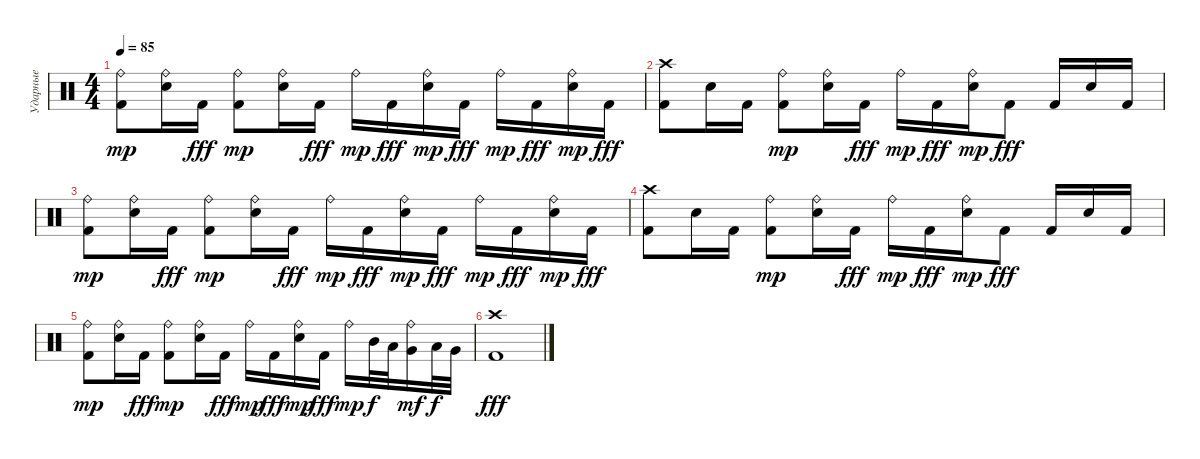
\track ("Ударные" "Ударные") {instrument percussion}
\staff {score}
\articulation defaults
\ts (4 4)
\tempo 85
\clef neutral
\ks c
("Kick (hit) 2" "Ride (bell)").8{dy mp} ("Electric Snare (hit)" "Ride (bell)").16 "Kick (hit) 2".16{dy fff} ("Kick (hit) 2" "Ride (bell)").8{dy mp} ("Electric Snare (hit)" "Ride (bell)").16 "Kick (hit) 2".16{dy fff} "Ride (bell)".16{dy mp} "Kick (hit) 2".16{dy fff} ("Electric Snare (hit)" "Ride (bell)").16{dy mp} "Kick (hit) 2".16{dy fff} "Ride (bell)".16{dy mp} "Kick (hit) 2".16{dy fff} ("Electric Snare (hit)" "Ride (bell)").16{dy mp} "Kick (hit) 2".16{dy fff} |
("Kick (hit) 2" "Crash high (hit)").8 "Electric Snare (hit)".16 "Kick (hit) 2".16 ("Kick (hit) 2" "Ride (bell)").8{dy mp} ("Electric Snare (hit)" "Ride (bell)").16 "Kick (hit) 2".16{dy fff} "Ride (bell)".16{dy mp} "Kick (hit) 2".16{dy fff} ("Electric Snare (hit)" "Ride (bell)").16{dy mp} "Kick (hit) 2".8{dy fff} "Kick (hit) 2".16 "Electric Snare (hit)".16 "Kick (hit) 2".16 |
("Kick (hit) 2" "Ride (bell)").8{dy mp} ("Electric Snare (hit)" "Ride (bell)").16 "Kick (hit) 2".16{dy fff} ("Kick (hit) 2" "Ride (bell)").8{dy mp} ("Electric Snare (hit)" "Ride (bell)").16 "Kick (hit) 2".16{dy fff} "Ride (bell)".16{dy mp} "Kick (hit) 2".16{dy fff} ("Electric Snare (hit)" "Ride (bell)").16{dy mp} "Kick (hit) 2".16{dy fff} "Ride (bell)".16{dy mp} "Kick (hit) 2".16{dy fff} ("Electric Snare (hit)" "Ride (bell)").16{dy mp} "Kick (hit) 2".16{dy fff} |
("Kick (hit) 2" "Crash high (hit)").8 "Electric Snare (hit)".16 "Kick (hit) 2".16 ("Kick (hit) 2" "Ride (bell)").8{dy mp} ("Electric Snare (hit)" "Ride (bell)").16 "Kick (hit) 2".16{dy fff} "Ride (bell)".16{dy mp} "Kick (hit) 2".16{dy fff} ("Electric Snare (hit)" "Ride (bell)").16{dy mp} "Kick (hit) 2".8{dy fff} "Kick (hit) 2".16 "Electric Snare (hit)".16 "Kick (hit) 2".16 |
("Kick (hit) 2" "Ride (bell)").8{dy mp} ("Electric Snare (hit)" "Ride (bell)").16 "Kick (hit) 2".16{dy fff} ("Kick (hit) 2" "Ride (bell)").8{dy mp} ("Electric Snare (hit)" "Ride (bell)").16 "Kick (hit) 2".16{dy fff} "Ride (bell)".16{dy mp} "Kick (hit) 2".16{dy fff} ("Electric Snare (hit)" "Ride (bell)").16{dy mp} "Kick (hit) 2".16{dy fff} "Ride (bell)".16{dy mp} "Mid Tom (hit)".32{dy f} "Low Tom (hit)".32 ("Very Low Tom (hit)" "Ride (bell)").16{dy mf} "Low Tom (hit)".32{dy f} "Very Low Tom (hit)".32 |
("Kick (hit) 2" "Crash high (hit)").1{dy fff}
